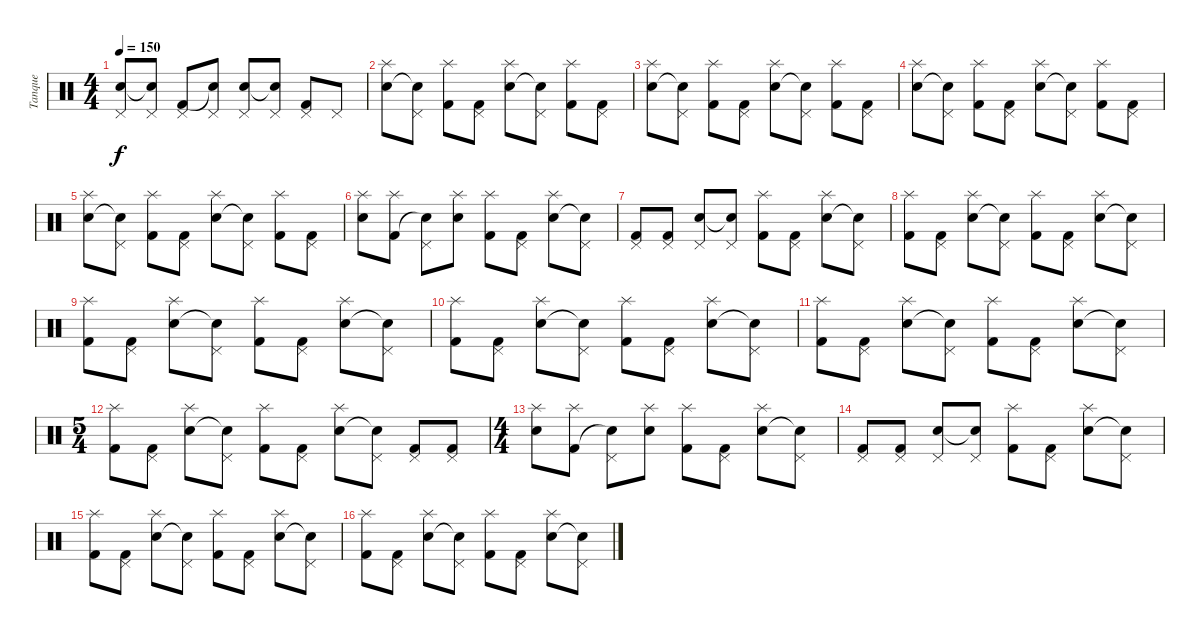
\track ("Tanque" "Tanque") {instrument percussion}
\staff {score}
\articulation defaults
\ts (4 4)
\tempo 150
\clef neutral
\ks c
("Pedal Hi-Hat (hit)" "Snare (hit) 2").8{dy f} ("Pedal Hi-Hat (hit)" "Snare (hit)"{t}).8 ("Pedal Hi-Hat (hit)" "Kick (hit) 2").8 ("Pedal Hi-Hat (hit)" "Snare (hit)"{t}).8 ("Pedal Hi-Hat (hit)" "Snare (hit) 2").8 ("Pedal Hi-Hat (hit)" "Snare (hit)"{t}).8 ("Pedal Hi-Hat (hit)" "Kick (hit) 2").8 "Pedal Hi-Hat (hit)".8 |
("Splash (hit)" "Snare (hit) 2").8 ("Pedal Hi-Hat (hit)" "Snare (hit)"{t}).8 ("Splash (hit)" "Kick (hit) 2").8 ("Pedal Hi-Hat (hit)" "Kick (hit) 2").8 ("Splash (hit)" "Snare (hit) 2").8 ("Pedal Hi-Hat (hit)" "Snare (hit)"{t}).8 ("Splash (hit)" "Kick (hit) 2").8 ("Pedal Hi-Hat (hit)" "Kick (hit) 2").8 |
("Splash (hit)" "Snare (hit) 2").8 ("Pedal Hi-Hat (hit)" "Snare (hit)"{t}).8 ("Splash (hit)" "Kick (hit) 2").8 ("Pedal Hi-Hat (hit)" "Kick (hit) 2").8 ("Splash (hit)" "Snare (hit) 2").8 ("Pedal Hi-Hat (hit)" "Snare (hit)"{t}).8 ("Splash (hit)" "Kick (hit) 2").8 ("Pedal Hi-Hat (hit)" "Kick (hit) 2").8 |
("Splash (hit)" "Snare (hit) 2").8 ("Pedal Hi-Hat (hit)" "Snare (hit)"{t}).8 ("Splash (hit)" "Kick (hit) 2").8 ("Pedal Hi-Hat (hit)" "Kick (hit) 2").8 ("Splash (hit)" "Snare (hit) 2").8 ("Pedal Hi-Hat (hit)" "Snare (hit)"{t}).8 ("Splash (hit)" "Kick (hit) 2").8 ("Pedal Hi-Hat (hit)" "Kick (hit) 2").8 |
("Splash (hit)" "Snare (hit) 2").8 ("Pedal Hi-Hat (hit)" "Snare (hit)"{t}).8 ("Splash (hit)" "Kick (hit) 2").8 ("Pedal Hi-Hat (hit)" "Kick (hit) 2").8 ("Splash (hit)" "Snare (hit) 2").8 ("Pedal Hi-Hat (hit)" "Snare (hit)"{t}).8 ("Splash (hit)" "Kick (hit) 2").8 ("Pedal Hi-Hat (hit)" "Kick (hit) 2").8 |
("Splash (hit)" "Snare (hit) 2").8 ("Splash (hit)" "Kick (hit) 2").8 ("Pedal Hi-Hat (hit)" "Snare (hit) 2"{t}).8 ("Splash (hit)" "Snare (hit) 2").8 ("Splash (hit)" "Kick (hit) 2").8 ("Pedal Hi-Hat (hit)" "Kick (hit) 2").8 ("Splash (hit)" "Snare (hit) 2").8 ("Pedal Hi-Hat (hit)" "Snare (hit) 2"{t}).8 |
("Pedal Hi-Hat (hit)" "Kick (hit) 2").8 ("Pedal Hi-Hat (hit)" "Kick (hit) 2").8 ("Pedal Hi-Hat (hit)" "Snare (hit) 2").8 ("Pedal Hi-Hat (hit)" "Snare (hit)"{t}).8 ("Splash (hit)" "Kick (hit) 2").8 ("Pedal Hi-Hat (hit)" "Kick (hit) 2").8 ("Splash (hit)" "Snare (hit) 2").8 ("Pedal Hi-Hat (hit)" "Snare (hit)"{t}).8 |
("Splash (hit)" "Kick (hit) 2").8 ("Pedal Hi-Hat (hit)" "Kick (hit) 2").8 ("Splash (hit)" "Snare (hit) 2").8 ("Pedal Hi-Hat (hit)" "Snare (hit)"{t}).8 ("Splash (hit)" "Kick (hit) 2").8 ("Pedal Hi-Hat (hit)" "Kick (hit) 2").8 ("Splash (hit)" "Snare (hit) 2").8 ("Pedal Hi-Hat (hit)" "Snare (hit)"{t}).8 |
("Splash (hit)" "Kick (hit) 2").8 ("Pedal Hi-Hat (hit)" "Kick (hit) 2").8 ("Splash (hit)" "Snare (hit) 2").8 ("Pedal Hi-Hat (hit)" "Snare (hit)"{t}).8 ("Splash (hit)" "Kick (hit) 2").8 ("Pedal Hi-Hat (hit)" "Kick (hit) 2").8 ("Splash (hit)" "Snare (hit) 2").8 ("Pedal Hi-Hat (hit)" "Snare (hit)"{t}).8 |
("Splash (hit)" "Kick (hit) 2").8 ("Pedal Hi-Hat (hit)" "Kick (hit) 2").8 ("Splash (hit)" "Snare (hit) 2").8 ("Pedal Hi-Hat (hit)" "Snare (hit)"{t}).8 ("Splash (hit)" "Kick (hit) 2").8 ("Pedal Hi-Hat (hit)" "Kick (hit) 2").8 ("Splash (hit)" "Snare (hit) 2").8 ("Pedal Hi-Hat (hit)" "Snare (hit)"{t}).8 |
("Splash (hit)" "Kick (hit) 2").8 ("Pedal Hi-Hat (hit)" "Kick (hit) 2").8 ("Splash (hit)" "Snare (hit) 2").8 ("Pedal Hi-Hat (hit)" "Snare (hit)"{t}).8 ("Splash (hit)" "Kick (hit) 2").8 ("Pedal Hi-Hat (hit)" "Kick (hit) 2").8 ("Splash (hit)" "Snare (hit) 2").8 ("Pedal Hi-Hat (hit)" "Snare (hit)"{t}).8 |
\ts (5 4)
("Splash (hit)" "Kick (hit) 2").8 ("Pedal Hi-Hat (hit)" "Kick (hit) 2").8 ("Splash (hit)" "Snare (hit) 2").8 ("Pedal Hi-Hat (hit)" "Snare (hit)"{t}).8 ("Splash (hit)" "Kick (hit) 2").8 ("Pedal Hi-Hat (hit)" "Kick (hit) 2").8 ("Splash (hit)" "Snare (hit) 2").8 ("Pedal Hi-Hat (hit)" "Snare (hit)"{t}).8 ("Pedal Hi-Hat (hit)" "Kick (hit) 2").8 ("Pedal Hi-Hat (hit)" "Kick (hit) 2").8 |
\ts (4 4)
("Splash (hit)" "Snare (hit) 2").8 ("Splash (hit)" "Kick (hit) 2").8 ("Pedal Hi-Hat (hit)" "Snare (hit) 2"{t}).8 ("Splash (hit)" "Snare (hit) 2").8 ("Splash (hit)" "Kick (hit) 2").8 ("Pedal Hi-Hat (hit)" "Kick (hit) 2").8 ("Splash (hit)" "Snare (hit) 2").8 ("Pedal Hi-Hat (hit)" "Snare (hit) 2"{t}).8 |
("Pedal Hi-Hat (hit)" "Kick (hit) 2").8 ("Pedal Hi-Hat (hit)" "Kick (hit) 2").8 ("Pedal Hi-Hat (hit)" "Snare (hit) 2").8 ("Pedal Hi-Hat (hit)" "Snare (hit)"{t}).8 ("Splash (hit)" "Kick (hit) 2").8 ("Pedal Hi-Hat (hit)" "Kick (hit) 2").8 ("Splash (hit)" "Snare (hit) 2").8 ("Pedal Hi-Hat (hit)" "Snare (hit)"{t}).8 |
("Splash (hit)" "Kick (hit) 2").8 ("Pedal Hi-Hat (hit)" "Kick (hit) 2").8 ("Splash (hit)" "Snare (hit) 2").8 ("Pedal Hi-Hat (hit)" "Snare (hit)"{t}).8 ("Splash (hit)" "Kick (hit) 2").8 ("Pedal Hi-Hat (hit)" "Kick (hit) 2").8 ("Splash (hit)" "Snare (hit) 2").8 ("Pedal Hi-Hat (hit)" "Snare (hit)"{t}).8 |
("Splash (hit)" "Kick (hit) 2").8 ("Pedal Hi-Hat (hit)" "Kick (hit) 2").8 ("Splash (hit)" "Snare (hit) 2").8 ("Pedal Hi-Hat (hit)" "Snare (hit)"{t}).8 ("Splash (hit)" "Kick (hit) 2").8 ("Pedal Hi-Hat (hit)" "Kick (hit) 2").8 ("Splash (hit)" "Snare (hit) 2").8 ("Pedal Hi-Hat (hit)" "Snare (hit)"{t}).8
